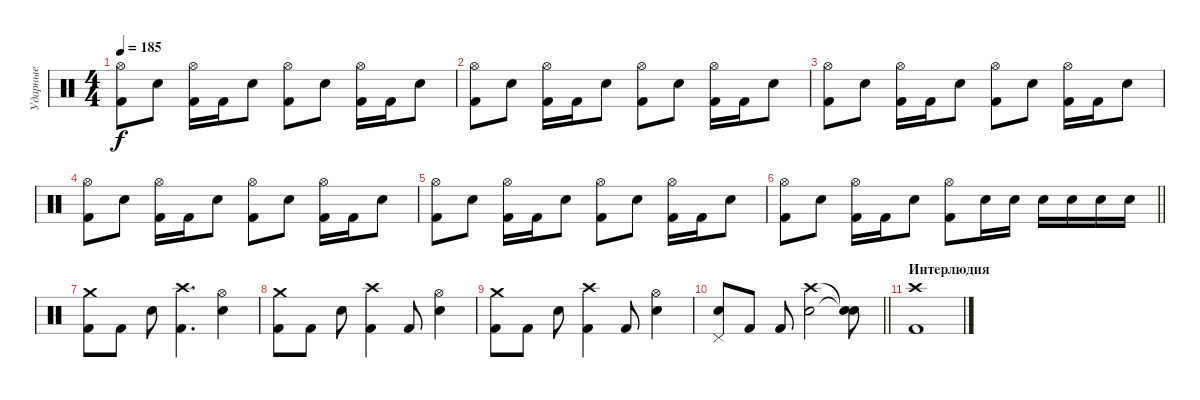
\track ("Ударные" "Ударные") {instrument percussion}
\staff {score}
\articulation defaults
\ts (4 4)
\tempo 185
\clef neutral
\ks c
("Hi-Hat (open)" "Kick (hit) 2").8{dy f} "Electric Snare (hit)".8 ("Hi-Hat (open)" "Kick (hit) 2").16 "Kick (hit) 2".16 "Electric Snare (hit)".8 ("Hi-Hat (open)" "Kick (hit) 2").8 "Electric Snare (hit)".8 ("Hi-Hat (open)" "Kick (hit) 2").16 "Kick (hit) 2".16 "Electric Snare (hit)".8 |
("Hi-Hat (open)" "Kick (hit) 2").8 "Electric Snare (hit)".8 ("Hi-Hat (open)" "Kick (hit) 2").16 "Kick (hit) 2".16 "Electric Snare (hit)".8 ("Hi-Hat (open)" "Kick (hit) 2").8 "Electric Snare (hit)".8 ("Hi-Hat (open)" "Kick (hit) 2").16 "Kick (hit) 2".16 "Electric Snare (hit)".8 |
("Hi-Hat (open)" "Kick (hit) 2").8 "Electric Snare (hit)".8 ("Hi-Hat (open)" "Kick (hit) 2").16 "Kick (hit) 2".16 "Electric Snare (hit)".8 ("Hi-Hat (open)" "Kick (hit) 2").8 "Electric Snare (hit)".8 ("Hi-Hat (open)" "Kick (hit) 2").16 "Kick (hit) 2".16 "Electric Snare (hit)".8 |
("Hi-Hat (open)" "Kick (hit) 2").8 "Electric Snare (hit)".8 ("Hi-Hat (open)" "Kick (hit) 2").16 "Kick (hit) 2".16 "Electric Snare (hit)".8 ("Hi-Hat (open)" "Kick (hit) 2").8 "Electric Snare (hit)".8 ("Hi-Hat (open)" "Kick (hit) 2").16 "Kick (hit) 2".16 "Electric Snare (hit)".8 |
("Hi-Hat (open)" "Kick (hit) 2").8 "Electric Snare (hit)".8 ("Hi-Hat (open)" "Kick (hit) 2").16 "Kick (hit) 2".16 "Electric Snare (hit)".8 ("Hi-Hat (open)" "Kick (hit) 2").8 "Electric Snare (hit)".8 ("Hi-Hat (open)" "Kick (hit) 2").16 "Kick (hit) 2".16 "Electric Snare (hit)".8 |
\barLineRight lightlight
("Hi-Hat (open)" "Kick (hit) 2").8 "Electric Snare (hit)".8 ("Hi-Hat (open)" "Kick (hit) 2").16 "Kick (hit) 2".16 "Electric Snare (hit)".8 ("Hi-Hat (open)" "Kick (hit) 2").8 "Electric Snare (hit)".16 "Electric Snare (hit)".16 "Electric Snare (hit)".16 "Electric Snare (hit)".16 "Electric Snare (hit)".16 "Electric Snare (hit)".16 |
("Crash medium (hit)" "Kick (hit) 2").8 "Kick (hit) 2".8 "Electric Snare (hit)".8 ("Crash high (hit)" "Kick (hit) 2").4{d} ("Hi-Hat (open)" "Electric Snare (hit)").4 |
("Crash medium (hit)" "Kick (hit) 2").8 "Kick (hit) 2".8 "Electric Snare (hit)".8 ("Crash high (hit)" "Kick (hit) 2").4 "Kick (hit) 2".8 ("Hi-Hat (open)" "Electric Snare (hit)").4 |
("Crash medium (hit)" "Kick (hit) 2").8 "Kick (hit) 2".8 "Electric Snare (hit)".8 ("Crash high (hit)" "Kick (hit) 2").4 "Kick (hit) 2".8 ("Hi-Hat (open)" "Electric Snare (hit)").4 |
\barLineRight lightlight
("Pedal Hi-Hat (hit)" "Electric Snare (hit)").8 "Kick (hit) 2".8 "Kick (hit) 2".8 ("Crash high (hit)" "Electric Snare (hit)").2 ("Snare (hit)"{t} "Snare (hit)"{t}).8 |
\section ("" "Интерлюдия")
("Crash high (hit)" "Kick (hit) 2").1
